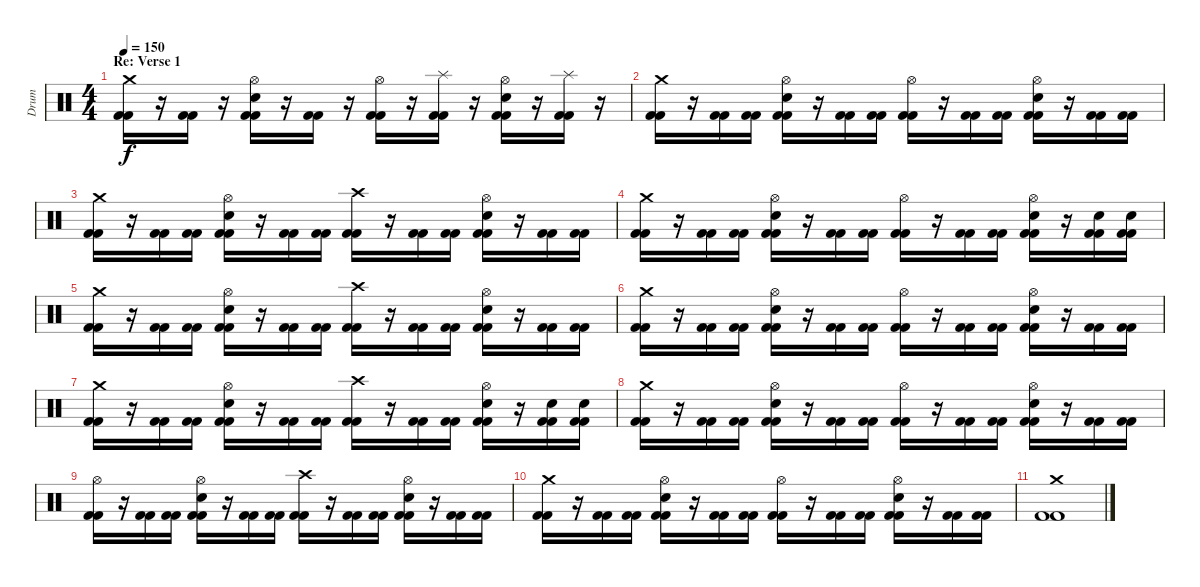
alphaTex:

\track ("Drum" "Drum") {instrument percussion}
\staff {score}
\articulation defaults
\ts (4 4)
\section ("" "Re: Verse 1")
\tempo 150
\clef neutral
\ks c
("Crash medium (hit)" "Kick (hit) 2" "Kick (hit) 2").16{dy f} r.16 ("Kick (hit) 2" "Kick (hit) 2").16 r.16 ("Snare (hit) 2" "Hi-Hat (open)" "Kick (hit) 2" "Kick (hit) 2").16 r.16 ("Kick (hit) 2" "Kick (hit) 2").16 r.16 ("Hi-Hat (open)" "Kick (hit) 2" "Kick (hit) 2").16 r.16 ("Splash (hit)" "Kick (hit) 2" "Kick (hit) 2").16 r.16 ("Snare (hit) 2" "Hi-Hat (open)" "Kick (hit) 2" "Kick (hit) 2").16 r.16 ("Splash (hit)" "Kick (hit) 2" "Kick (hit) 2").16 r.16 |
("Crash medium (hit)" "Kick (hit) 2" "Kick (hit) 2").16 r.16 ("Kick (hit) 2" "Kick (hit) 2").16 ("Kick (hit) 2" "Kick (hit) 2").16 ("Snare (hit) 2" "Hi-Hat (open)" "Kick (hit) 2" "Kick (hit) 2").16 r.16 ("Kick (hit) 2" "Kick (hit) 2").16 ("Kick (hit) 2" "Kick (hit) 2").16 ("Hi-Hat (open)" "Kick (hit) 2" "Kick (hit) 2").16 r.16 ("Kick (hit) 2" "Kick (hit) 2").16 ("Kick (hit) 2" "Kick (hit) 2").16 ("Snare (hit) 2" "Hi-Hat (open)" "Kick (hit) 2" "Kick (hit) 2").16 r.16 ("Kick (hit) 2" "Kick (hit) 2").16 ("Kick (hit) 2" "Kick (hit) 2").16 |
("Crash medium (hit)" "Kick (hit) 2" "Kick (hit) 2").16 r.16 ("Kick (hit) 2" "Kick (hit) 2").16 ("Kick (hit) 2" "Kick (hit) 2").16 ("Snare (hit) 2" "Hi-Hat (open)" "Kick (hit) 2" "Kick (hit) 2").16 r.16 ("Kick (hit) 2" "Kick (hit) 2").16 ("Kick (hit) 2" "Kick (hit) 2").16 ("Crash high (hit)" "Kick (hit) 2" "Kick (hit) 2").16 r.16 ("Kick (hit) 2" "Kick (hit) 2").16 ("Kick (hit) 2" "Kick (hit) 2").16 ("Snare (hit) 2" "Hi-Hat (open)" "Kick (hit) 2" "Kick (hit) 2").16 r.16 ("Kick (hit) 2" "Kick (hit) 2").16 ("Kick (hit) 2" "Kick (hit) 2").16 |
("Crash medium (hit)" "Kick (hit) 2" "Kick (hit) 2").16 r.16 ("Kick (hit) 2" "Kick (hit) 2").16 ("Kick (hit) 2" "Kick (hit) 2").16 ("Snare (hit) 2" "Hi-Hat (open)" "Kick (hit) 2" "Kick (hit) 2").16 r.16 ("Kick (hit) 2" "Kick (hit) 2").16 ("Kick (hit) 2" "Kick (hit) 2").16 ("Hi-Hat (open)" "Kick (hit) 2" "Kick (hit) 2").16 r.16 ("Kick (hit) 2" "Kick (hit) 2").16 ("Kick (hit) 2" "Kick (hit) 2").16 ("Snare (hit) 2" "Hi-Hat (open)" "Kick (hit) 2" "Kick (hit) 2").16 r.16 ("Snare (hit) 2" "Kick (hit) 2" "Kick (hit) 2").16 ("Snare (hit) 2" "Kick (hit) 2" "Kick (hit) 2").16 |
("Crash medium (hit)" "Kick (hit) 2" "Kick (hit) 2").16 r.16 ("Kick (hit) 2" "Kick (hit) 2").16 ("Kick (hit) 2" "Kick (hit) 2").16 ("Snare (hit) 2" "Hi-Hat (open)" "Kick (hit) 2" "Kick (hit) 2").16 r.16 ("Kick (hit) 2" "Kick (hit) 2").16 ("Kick (hit) 2" "Kick (hit) 2").16 ("Crash high (hit)" "Kick (hit) 2" "Kick (hit) 2").16 r.16 ("Kick (hit) 2" "Kick (hit) 2").16 ("Kick (hit) 2" "Kick (hit) 2").16 ("Snare (hit) 2" "Hi-Hat (open)" "Kick (hit) 2" "Kick (hit) 2").16 r.16 ("Kick (hit) 2" "Kick (hit) 2").16 ("Kick (hit) 2" "Kick (hit) 2").16 |
("Crash medium (hit)" "Kick (hit) 2" "Kick (hit) 2").16 r.16 ("Kick (hit) 2" "Kick (hit) 2").16 ("Kick (hit) 2" "Kick (hit) 2").16 ("Snare (hit) 2" "Hi-Hat (open)" "Kick (hit) 2" "Kick (hit) 2").16 r.16 ("Kick (hit) 2" "Kick (hit) 2").16 ("Kick (hit) 2" "Kick (hit) 2").16 ("Hi-Hat (open)" "Kick (hit) 2" "Kick (hit) 2").16 r.16 ("Kick (hit) 2" "Kick (hit) 2").16 ("Kick (hit) 2" "Kick (hit) 2").16 ("Snare (hit) 2" "Hi-Hat (open)" "Kick (hit) 2" "Kick (hit) 2").16 r.16 ("Kick (hit) 2" "Kick (hit) 2").16 ("Kick (hit) 2" "Kick (hit) 2").16 |
("Crash medium (hit)" "Kick (hit) 2" "Kick (hit) 2").16 r.16 ("Kick (hit) 2" "Kick (hit) 2").16 ("Kick (hit) 2" "Kick (hit) 2").16 ("Snare (hit) 2" "Hi-Hat (open)" "Kick (hit) 2" "Kick (hit) 2").16 r.16 ("Kick (hit) 2" "Kick (hit) 2").16 ("Kick (hit) 2" "Kick (hit) 2").16 ("Crash high (hit)" "Kick (hit) 2" "Kick (hit) 2").16 r.16 ("Kick (hit) 2" "Kick (hit) 2").16 ("Kick (hit) 2" "Kick (hit) 2").16 ("Snare (hit) 2" "Hi-Hat (open)" "Kick (hit) 2" "Kick (hit) 2").16 r.16 ("Snare (hit) 2" "Kick (hit) 2" "Kick (hit) 2").16 ("Snare (hit) 2" "Kick (hit) 2" "Kick (hit) 2").16 |
("Crash medium (hit)" "Kick (hit) 2" "Kick (hit) 2").16 r.16 ("Kick (hit) 2" "Kick (hit) 2").16 ("Kick (hit) 2" "Kick (hit) 2").16 ("Snare (hit) 2" "Hi-Hat (open)" "Kick (hit) 2" "Kick (hit) 2").16 r.16 ("Kick (hit) 2" "Kick (hit) 2").16 ("Kick (hit) 2" "Kick (hit) 2").16 ("Hi-Hat (open)" "Kick (hit) 2" "Kick (hit) 2").16 r.16 ("Kick (hit) 2" "Kick (hit) 2").16 ("Kick (hit) 2" "Kick (hit) 2").16 ("Snare (hit) 2" "Hi-Hat (open)" "Kick (hit) 2" "Kick (hit) 2").16 r.16 ("Kick (hit) 2" "Kick (hit) 2").16 ("Kick (hit) 2" "Kick (hit) 2").16 |
("Hi-Hat (open)" "Kick (hit) 2" "Kick (hit) 2").16 r.16 ("Kick (hit) 2" "Kick (hit) 2").16 ("Kick (hit) 2" "Kick (hit) 2").16 ("Snare (hit) 2" "Hi-Hat (open)" "Kick (hit) 2" "Kick (hit) 2").16 r.16 ("Kick (hit) 2" "Kick (hit) 2").16 ("Kick (hit) 2" "Kick (hit) 2").16 ("Crash high (hit)" "Kick (hit) 2" "Kick (hit) 2").16 r.16 ("Kick (hit) 2" "Kick (hit) 2").16 ("Kick (hit) 2" "Kick (hit) 2").16 ("Snare (hit) 2" "Hi-Hat (open)" "Kick (hit) 2" "Kick (hit) 2").16 r.16 ("Kick (hit) 2" "Kick (hit) 2").16 ("Kick (hit) 2" "Kick (hit) 2").16 |
("Crash medium (hit)" "Kick (hit) 2" "Kick (hit) 2").16 r.16 ("Kick (hit) 2" "Kick (hit) 2").16 ("Kick (hit) 2" "Kick (hit) 2").16 ("Snare (hit) 2" "Hi-Hat (open)" "Kick (hit) 2" "Kick (hit) 2").16 r.16 ("Kick (hit) 2" "Kick (hit) 2").16 ("Kick (hit) 2" "Kick (hit) 2").16 ("Hi-Hat (open)" "Kick (hit) 2" "Kick (hit) 2").16 r.16 ("Kick (hit) 2" "Kick (hit) 2").16 ("Kick (hit) 2" "Kick (hit) 2").16 ("Snare (hit) 2" "Hi-Hat (open)" "Kick (hit) 2" "Kick (hit) 2").16 r.16 ("Kick (hit) 2" "Kick (hit) 2").16 ("Kick (hit) 2" "Kick (hit) 2").16 |
("Crash medium (hit)" "Kick (hit) 2" "Kick (hit) 2").1
